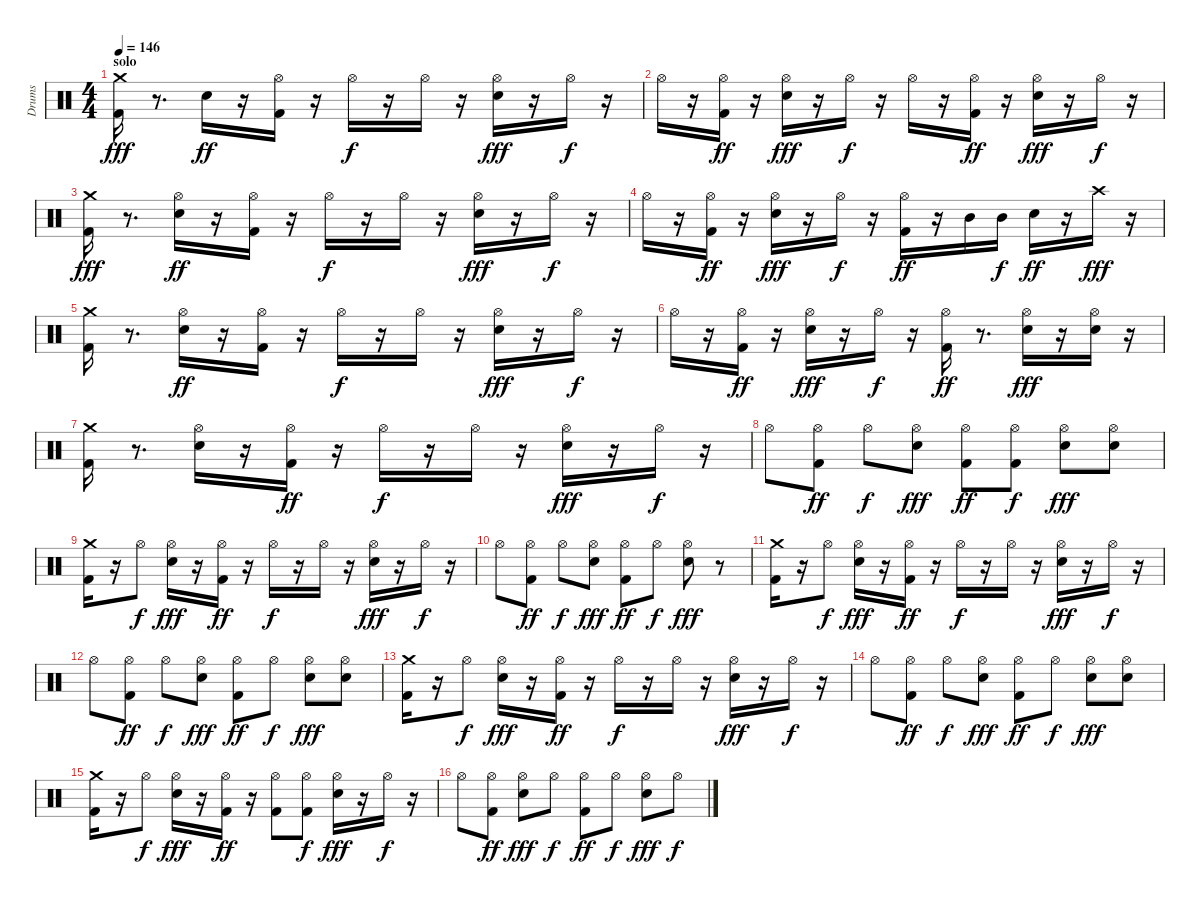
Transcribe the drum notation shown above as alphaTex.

\track ("Drums" "Drums") {instrument percussion}
\staff {score}
\articulation defaults
\ts (4 4)
\section ("" "solo")
\tempo 146
\clef neutral
\ks c
("Kick (hit) 2" "Crash medium (hit)").16{dy fff} r.8{d} "Snare (hit) 2".16{dy ff} r.16 ("Kick (hit) 2" "Hi-Hat (open)").16 r.16 "Hi-Hat (open)".16{dy f} r.16 "Hi-Hat (open)".16 r.16 ("Snare (hit) 2" "Hi-Hat (open)").16{dy fff} r.16 "Hi-Hat (open)".16{dy f} r.16 |
"Hi-Hat (open)".16 r.16 ("Kick (hit) 2" "Hi-Hat (open)").16{dy ff} r.16 ("Snare (hit) 2" "Hi-Hat (open)").16{dy fff} r.16 "Hi-Hat (open)".16{dy f} r.16 "Hi-Hat (open)".16 r.16 ("Kick (hit) 2" "Hi-Hat (open)").16{dy ff} r.16 ("Snare (hit) 2" "Hi-Hat (open)").16{dy fff} r.16 "Hi-Hat (open)".16{dy f} r.16 |
("Kick (hit) 2" "Crash medium (hit)").16{dy fff} r.8{d} ("Hi-Hat (open)" "Snare (hit) 2").16{dy ff} r.16 ("Kick (hit) 2" "Hi-Hat (open)").16 r.16 "Hi-Hat (open)".16{dy f} r.16 "Hi-Hat (open)".16 r.16 ("Snare (hit) 2" "Hi-Hat (open)").16{dy fff} r.16 "Hi-Hat (open)".16{dy f} r.16 |
"Hi-Hat (open)".16 r.16 ("Kick (hit) 2" "Hi-Hat (open)").16{dy ff} r.16 ("Snare (hit) 2" "Hi-Hat (open)").16{dy fff} r.16 "Hi-Hat (open)".16{dy f} r.16 ("Kick (hit) 2" "Hi-Hat (open)").16{dy ff} r.16 "Mid Tom (hit)".16 "Mid Tom (hit)".16{dy f} "Snare (hit) 2".16{dy ff} r.16 "Crash high (hit)".16{dy fff} r.16 |
("Kick (hit) 2" "Crash medium (hit)").16 r.8{d} ("Hi-Hat (open)" "Snare (hit) 2").16{dy ff} r.16 ("Kick (hit) 2" "Hi-Hat (open)").16 r.16 "Hi-Hat (open)".16{dy f} r.16 "Hi-Hat (open)".16 r.16 ("Snare (hit) 2" "Hi-Hat (open)").16{dy fff} r.16 "Hi-Hat (open)".16{dy f} r.16 |
"Hi-Hat (open)".16 r.16 ("Kick (hit) 2" "Hi-Hat (open)").16{dy ff} r.16 ("Snare (hit) 2" "Hi-Hat (open)").16{dy fff} r.16 "Hi-Hat (open)".16{dy f} r.16 ("Kick (hit) 2" "Hi-Hat (open)").16{dy ff} r.8{d} ("Snare (hit) 2" "Hi-Hat (open)").16{dy fff} r.16 ("Snare (hit) 2" "Hi-Hat (open)").16 r.16 |
("Kick (hit) 2" "Crash medium (hit)").16 r.8{d} ("Snare (hit) 2" "Hi-Hat (open)").16 r.16 ("Kick (hit) 2" "Hi-Hat (open)").16{dy ff} r.16 "Hi-Hat (open)".16{dy f} r.16 "Hi-Hat (open)".16 r.16 ("Snare (hit) 2" "Hi-Hat (open)").16{dy fff} r.16 "Hi-Hat (open)".16{dy f} r.16 |
"Hi-Hat (open)".8 ("Kick (hit) 2" "Hi-Hat (open)").8{dy ff} "Hi-Hat (open)".8{dy f} ("Snare (hit) 2" "Hi-Hat (open)").8{dy fff} ("Kick (hit) 2" "Hi-Hat (open)").8{dy ff} ("Kick (hit) 2" "Hi-Hat (open)").8{dy f} ("Snare (hit) 2" "Hi-Hat (open)").8{dy fff} ("Snare (hit) 2" "Hi-Hat (open)").8 |
("Kick (hit) 2" "Crash medium (hit)").16 r.16 "Hi-Hat (open)".8{dy f} ("Snare (hit) 2" "Hi-Hat (open)").16{dy fff} r.16 ("Kick (hit) 2" "Hi-Hat (open)").16{dy ff} r.16 "Hi-Hat (open)".16{dy f} r.16 "Hi-Hat (open)".16 r.16 ("Snare (hit) 2" "Hi-Hat (open)").16{dy fff} r.16 "Hi-Hat (open)".16{dy f} r.16 |
"Hi-Hat (open)".8 ("Kick (hit) 2" "Hi-Hat (open)").8{dy ff} "Hi-Hat (open)".8{dy f} ("Snare (hit) 2" "Hi-Hat (open)").8{dy fff} ("Kick (hit) 2" "Hi-Hat (open)").8{dy ff} "Hi-Hat (open)".8{dy f} ("Snare (hit) 2" "Hi-Hat (open)").8{dy fff} r.8 |
("Kick (hit) 2" "Crash medium (hit)").16 r.16 "Hi-Hat (open)".8{dy f} ("Snare (hit) 2" "Hi-Hat (open)").16{dy fff} r.16 ("Kick (hit) 2" "Hi-Hat (open)").16{dy ff} r.16 "Hi-Hat (open)".16{dy f} r.16 "Hi-Hat (open)".16 r.16 ("Snare (hit) 2" "Hi-Hat (open)").16{dy fff} r.16 "Hi-Hat (open)".16{dy f} r.16 |
"Hi-Hat (open)".8 ("Kick (hit) 2" "Hi-Hat (open)").8{dy ff} "Hi-Hat (open)".8{dy f} ("Snare (hit) 2" "Hi-Hat (open)").8{dy fff} ("Kick (hit) 2" "Hi-Hat (open)").8{dy ff} "Hi-Hat (open)".8{dy f} ("Snare (hit) 2" "Hi-Hat (open)").8{dy fff} ("Snare (hit) 2" "Hi-Hat (open)").8 |
("Kick (hit) 2" "Crash medium (hit)").16 r.16 "Hi-Hat (open)".8{dy f} ("Snare (hit) 2" "Hi-Hat (open)").16{dy fff} r.16 ("Kick (hit) 2" "Hi-Hat (open)").16{dy ff} r.16 "Hi-Hat (open)".16{dy f} r.16 "Hi-Hat (open)".16 r.16 ("Snare (hit) 2" "Hi-Hat (open)").16{dy fff} r.16 "Hi-Hat (open)".16{dy f} r.16 |
"Hi-Hat (open)".8 ("Kick (hit) 2" "Hi-Hat (open)").8{dy ff} "Hi-Hat (open)".8{dy f} ("Snare (hit) 2" "Hi-Hat (open)").8{dy fff} ("Kick (hit) 2" "Hi-Hat (open)").8{dy ff} "Hi-Hat (open)".8{dy f} ("Snare (hit) 2" "Hi-Hat (open)").8{dy fff} ("Snare (hit) 2" "Hi-Hat (open)").8 |
("Kick (hit) 2" "Crash medium (hit)").16 r.16 "Hi-Hat (open)".8{dy f} ("Snare (hit) 2" "Hi-Hat (open)").16{dy fff} r.16 ("Kick (hit) 2" "Hi-Hat (open)").16{dy ff} r.16 ("Kick (hit) 2" "Hi-Hat (open)").8 ("Kick (hit) 2" "Hi-Hat (open)").8{dy f} ("Snare (hit) 2" "Hi-Hat (open)").16{dy fff} r.16 "Hi-Hat (open)".16{dy f} r.16 |
"Hi-Hat (open)".8 ("Kick (hit) 2" "Hi-Hat (open)").8{dy ff} ("Snare (hit) 2" "Hi-Hat (open)").8{dy fff} "Hi-Hat (open)".8{dy f} ("Kick (hit) 2" "Hi-Hat (open)").8{dy ff} "Hi-Hat (open)".8{dy f} ("Snare (hit) 2" "Hi-Hat (open)").8{dy fff} "Hi-Hat (open)".8{dy f}
